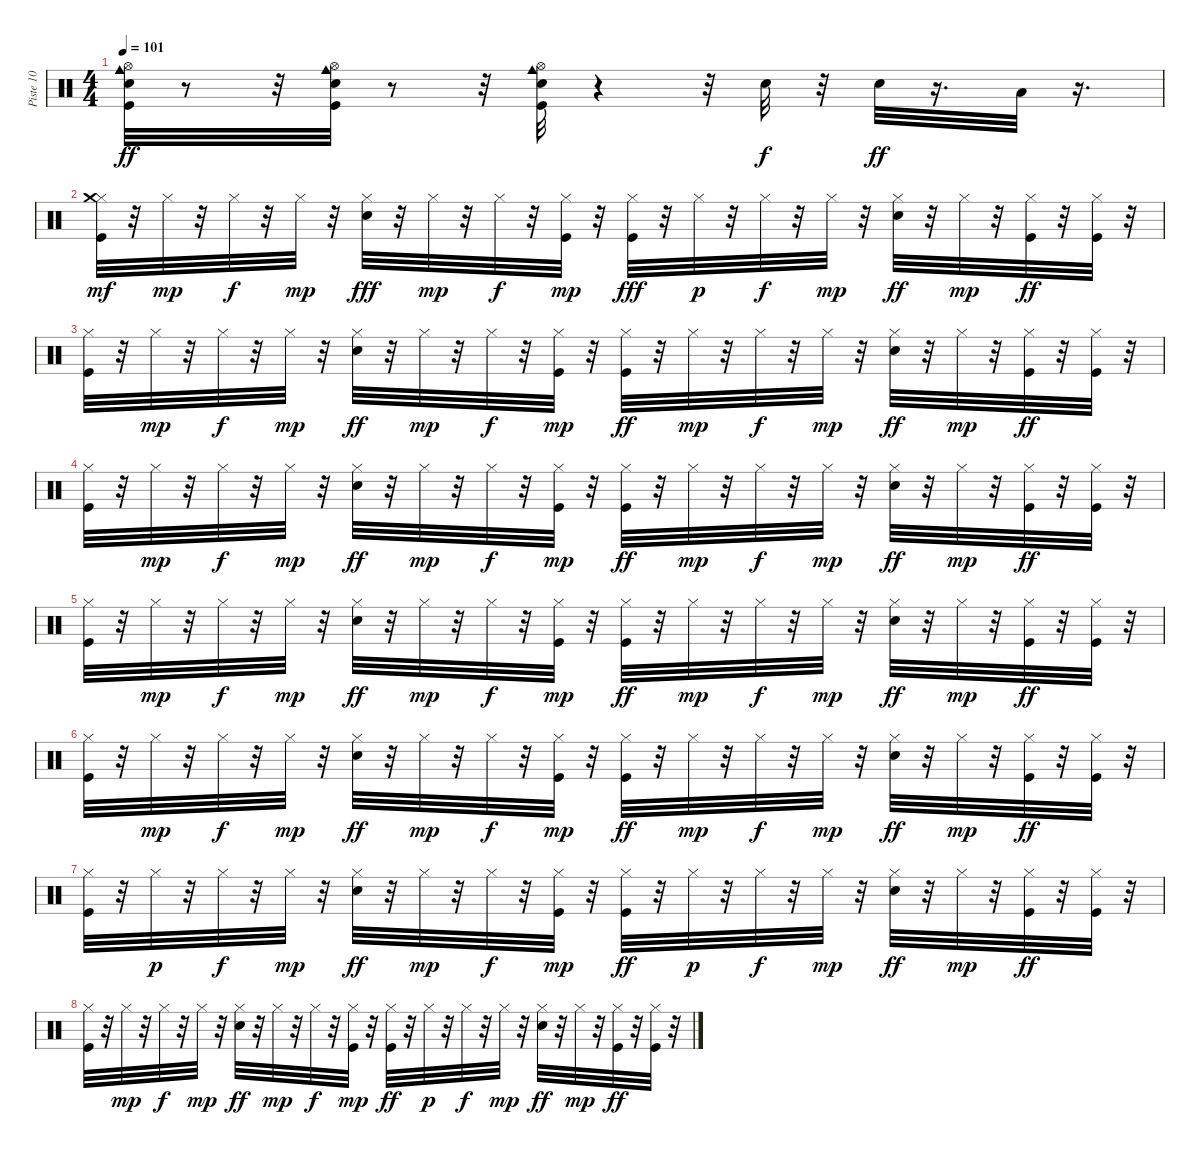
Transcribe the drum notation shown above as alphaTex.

\track ("Piste 10" "Piste 10") {instrument percussion}
\staff {score}
\articulation defaults
\ts (4 4)
\tempo 101
\clef neutral
\ks c
("Kick (hit)" "Electric Snare (hit)" "Hi-Hat (open)" "Cowbell medium (hit)").32{dy ff} r.8 r.32 ("Kick (hit)" "Electric Snare (hit)" "Hi-Hat (open)" "Cowbell medium (hit)").32 r.8 r.32 ("Kick (hit)" "Electric Snare (hit)" "Hi-Hat (open)" "Cowbell medium (hit)").32 r.4 r.32 "Electric Snare (hit)".32{dy f} r.32 "Electric Snare (hit)".32{dy ff} r.16{d} "Low Tom (hit)".32 r.16{d} |
("Kick (hit)" "Hi-Hat (closed)" "Crash medium (hit)").32{dy mf} r.32 "Hi-Hat (closed)".32{dy mp} r.32 "Hi-Hat (closed)".32{dy f} r.32 "Hi-Hat (closed)".32{dy mp} r.32 ("Electric Snare (hit)" "Hi-Hat (closed)").32{dy fff} r.32 "Hi-Hat (closed)".32{dy mp} r.32 "Hi-Hat (closed)".32{dy f} r.32 ("Kick (hit)" "Hi-Hat (closed)").32{dy mp} r.32 ("Kick (hit)" "Hi-Hat (closed)").32{dy fff} r.32 "Hi-Hat (closed)".32{dy p} r.32 "Hi-Hat (closed)".32{dy f} r.32 "Hi-Hat (closed)".32{dy mp} r.32 ("Electric Snare (hit)" "Hi-Hat (closed)").32{dy ff} r.32 "Hi-Hat (closed)".32{dy mp} r.32 ("Kick (hit)" "Hi-Hat (closed)").32{dy ff} r.32 ("Kick (hit)" "Hi-Hat (closed)").32 r.32 |
("Kick (hit)" "Hi-Hat (closed)").32 r.32 "Hi-Hat (closed)".32{dy mp} r.32 "Hi-Hat (closed)".32{dy f} r.32 "Hi-Hat (closed)".32{dy mp} r.32 ("Electric Snare (hit)" "Hi-Hat (closed)").32{dy ff} r.32 "Hi-Hat (closed)".32{dy mp} r.32 "Hi-Hat (closed)".32{dy f} r.32 ("Kick (hit)" "Hi-Hat (closed)").32{dy mp} r.32 ("Kick (hit)" "Hi-Hat (closed)").32{dy ff} r.32 "Hi-Hat (closed)".32{dy mp} r.32 "Hi-Hat (closed)".32{dy f} r.32 "Hi-Hat (closed)".32{dy mp} r.32 ("Electric Snare (hit)" "Hi-Hat (closed)").32{dy ff} r.32 "Hi-Hat (closed)".32{dy mp} r.32 ("Kick (hit)" "Hi-Hat (closed)").32{dy ff} r.32 ("Kick (hit)" "Hi-Hat (closed)").32 r.32 |
("Kick (hit)" "Hi-Hat (closed)").32 r.32 "Hi-Hat (closed)".32{dy mp} r.32 "Hi-Hat (closed)".32{dy f} r.32 "Hi-Hat (closed)".32{dy mp} r.32 ("Electric Snare (hit)" "Hi-Hat (closed)").32{dy ff} r.32 "Hi-Hat (closed)".32{dy mp} r.32 "Hi-Hat (closed)".32{dy f} r.32 ("Kick (hit)" "Hi-Hat (closed)").32{dy mp} r.32 ("Kick (hit)" "Hi-Hat (closed)").32{dy ff} r.32 "Hi-Hat (closed)".32{dy mp} r.32 "Hi-Hat (closed)".32{dy f} r.32 "Hi-Hat (closed)".32{dy mp} r.32 ("Electric Snare (hit)" "Hi-Hat (closed)").32{dy ff} r.32 "Hi-Hat (closed)".32{dy mp} r.32 ("Kick (hit)" "Hi-Hat (closed)").32{dy ff} r.32 ("Kick (hit)" "Hi-Hat (closed)").32 r.32 |
("Kick (hit)" "Hi-Hat (closed)").32 r.32 "Hi-Hat (closed)".32{dy mp} r.32 "Hi-Hat (closed)".32{dy f} r.32 "Hi-Hat (closed)".32{dy mp} r.32 ("Electric Snare (hit)" "Hi-Hat (closed)").32{dy ff} r.32 "Hi-Hat (closed)".32{dy mp} r.32 "Hi-Hat (closed)".32{dy f} r.32 ("Kick (hit)" "Hi-Hat (closed)").32{dy mp} r.32 ("Kick (hit)" "Hi-Hat (closed)").32{dy ff} r.32 "Hi-Hat (closed)".32{dy mp} r.32 "Hi-Hat (closed)".32{dy f} r.32 "Hi-Hat (closed)".32{dy mp} r.32 ("Electric Snare (hit)" "Hi-Hat (closed)").32{dy ff} r.32 "Hi-Hat (closed)".32{dy mp} r.32 ("Kick (hit)" "Hi-Hat (closed)").32{dy ff} r.32 ("Kick (hit)" "Hi-Hat (closed)").32 r.32 |
("Kick (hit)" "Hi-Hat (closed)").32 r.32 "Hi-Hat (closed)".32{dy mp} r.32 "Hi-Hat (closed)".32{dy f} r.32 "Hi-Hat (closed)".32{dy mp} r.32 ("Electric Snare (hit)" "Hi-Hat (closed)").32{dy ff} r.32 "Hi-Hat (closed)".32{dy mp} r.32 "Hi-Hat (closed)".32{dy f} r.32 ("Kick (hit)" "Hi-Hat (closed)").32{dy mp} r.32 ("Kick (hit)" "Hi-Hat (closed)").32{dy ff} r.32 "Hi-Hat (closed)".32{dy mp} r.32 "Hi-Hat (closed)".32{dy f} r.32 "Hi-Hat (closed)".32{dy mp} r.32 ("Electric Snare (hit)" "Hi-Hat (closed)").32{dy ff} r.32 "Hi-Hat (closed)".32{dy mp} r.32 ("Kick (hit)" "Hi-Hat (closed)").32{dy ff} r.32 ("Kick (hit)" "Hi-Hat (closed)").32 r.32 |
("Kick (hit)" "Hi-Hat (closed)").32 r.32 "Hi-Hat (closed)".32{dy p} r.32 "Hi-Hat (closed)".32{dy f} r.32 "Hi-Hat (closed)".32{dy mp} r.32 ("Electric Snare (hit)" "Hi-Hat (closed)").32{dy ff} r.32 "Hi-Hat (closed)".32{dy mp} r.32 "Hi-Hat (closed)".32{dy f} r.32 ("Kick (hit)" "Hi-Hat (closed)").32{dy mp} r.32 ("Kick (hit)" "Hi-Hat (closed)").32{dy ff} r.32 "Hi-Hat (closed)".32{dy p} r.32 "Hi-Hat (closed)".32{dy f} r.32 "Hi-Hat (closed)".32{dy mp} r.32 ("Electric Snare (hit)" "Hi-Hat (closed)").32{dy ff} r.32 "Hi-Hat (closed)".32{dy mp} r.32 ("Kick (hit)" "Hi-Hat (closed)").32{dy ff} r.32 ("Kick (hit)" "Hi-Hat (closed)").32 r.32 |
("Kick (hit)" "Hi-Hat (closed)").32 r.32 "Hi-Hat (closed)".32{dy mp} r.32 "Hi-Hat (closed)".32{dy f} r.32 "Hi-Hat (closed)".32{dy mp} r.32 ("Electric Snare (hit)" "Hi-Hat (closed)").32{dy ff} r.32 "Hi-Hat (closed)".32{dy mp} r.32 "Hi-Hat (closed)".32{dy f} r.32 ("Kick (hit)" "Hi-Hat (closed)").32{dy mp} r.32 ("Kick (hit)" "Hi-Hat (closed)").32{dy ff} r.32 "Hi-Hat (closed)".32{dy p} r.32 "Hi-Hat (closed)".32{dy f} r.32 "Hi-Hat (closed)".32{dy mp} r.32 ("Electric Snare (hit)" "Hi-Hat (closed)").32{dy ff} r.32 "Hi-Hat (closed)".32{dy mp} r.32 ("Kick (hit)" "Hi-Hat (closed)").32{dy ff} r.32 ("Kick (hit)" "Hi-Hat (closed)").32 r.32
